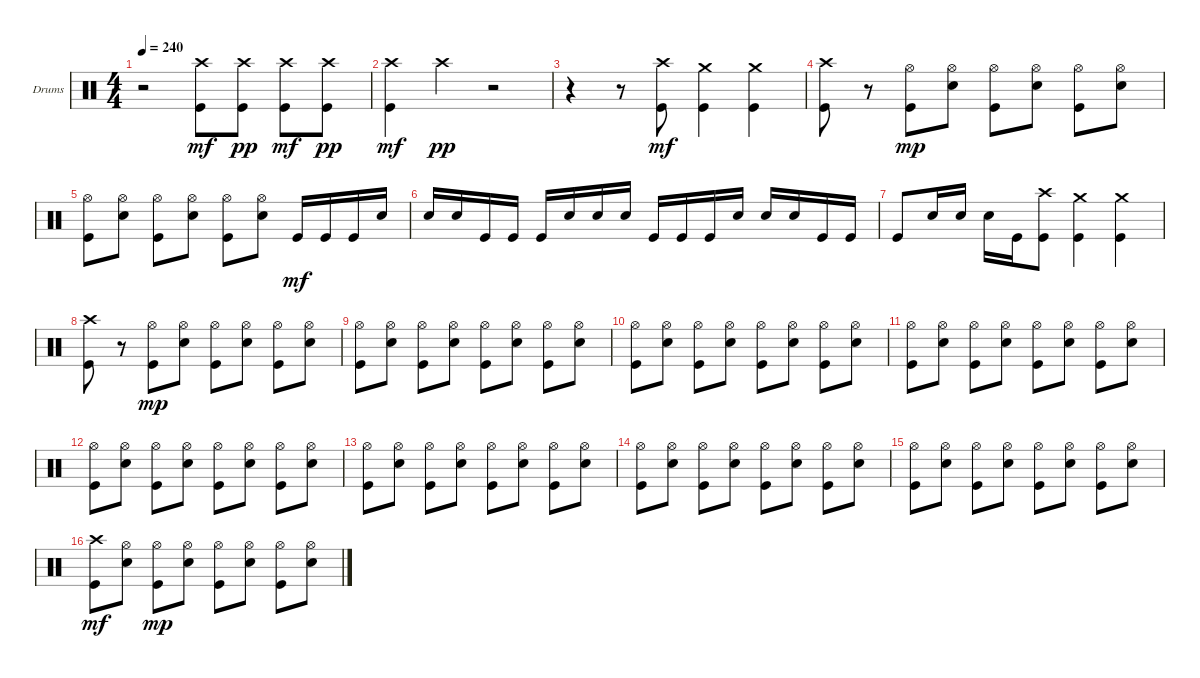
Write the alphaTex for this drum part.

\bracketExtendMode groupsimilarinstruments
\firstSystemTrackNameOrientation horizontal
\otherSystemsTrackNameOrientation horizontal
\track ("Drumkit" "Drums") {instrument percussion}
\staff {score}
\articulation defaults
\ts (4 4)
\tempo 240
\clef neutral
\ks c
r.2{dy mf} ("Crash high (hit)" "Kick (hit)").8 ("Crash high (hit)" "Kick (hit)").8{dy pp} ("Crash high (hit)" "Kick (hit)").8{dy mf} ("Crash high (hit)" "Kick (hit)").8{dy pp} |
("Crash high (hit)" "Kick (hit)").4{dy mf} "Crash high (hit)".4{dy pp} r.2 |
r.4 r.8 ("Crash high (hit)" "Kick (hit)").8{dy mf} ("Crash medium (hit)" "Kick (hit)").4 ("Crash medium (hit)" "Kick (hit)").4 |
("Crash high (hit)" "Kick (hit)").8 r.8 ("Hi-Hat (open)" "Kick (hit)").8{dy mp} ("Hi-Hat (open)" "Snare (hit) 2").8 ("Hi-Hat (open)" "Kick (hit)").8 ("Hi-Hat (open)" "Snare (hit) 2").8 ("Hi-Hat (open)" "Kick (hit)").8 ("Hi-Hat (open)" "Snare (hit) 2").8 |
("Hi-Hat (open)" "Kick (hit)").8 ("Hi-Hat (open)" "Snare (hit) 2").8 ("Hi-Hat (open)" "Kick (hit)").8 ("Hi-Hat (open)" "Snare (hit) 2").8 ("Hi-Hat (open)" "Kick (hit)").8 ("Hi-Hat (open)" "Snare (hit) 2").8 "Kick (hit)".16{dy mf} "Kick (hit)".16 "Kick (hit)".16 "Snare (hit) 2".16 |
"Snare (hit) 2".16 "Snare (hit) 2".16 "Kick (hit)".16 "Kick (hit)".16 "Kick (hit)".16 "Snare (hit) 2".16 "Snare (hit) 2".16 "Snare (hit) 2".16 "Kick (hit)".16 "Kick (hit)".16 "Kick (hit)".16 "Snare (hit) 2".16 "Snare (hit) 2".16 "Snare (hit) 2".16 "Kick (hit)".16 "Kick (hit)".16 |
"Kick (hit)".8 "Snare (hit) 2".16 "Snare (hit) 2".16 "Snare (hit) 2".16 "Kick (hit)".16 ("Crash high (hit)" "Kick (hit)").8 ("Crash medium (hit)" "Kick (hit)").4 ("Crash medium (hit)" "Kick (hit)").4 |
("Crash high (hit)" "Kick (hit)").8 r.8 ("Hi-Hat (open)" "Kick (hit)").8{dy mp} ("Hi-Hat (open)" "Snare (hit) 2").8 ("Hi-Hat (open)" "Kick (hit)").8 ("Hi-Hat (open)" "Snare (hit) 2").8 ("Hi-Hat (open)" "Kick (hit)").8 ("Hi-Hat (open)" "Snare (hit) 2").8 |
("Hi-Hat (open)" "Kick (hit)").8 ("Hi-Hat (open)" "Snare (hit) 2").8 ("Hi-Hat (open)" "Kick (hit)").8 ("Hi-Hat (open)" "Snare (hit) 2").8 ("Hi-Hat (open)" "Kick (hit)").8 ("Hi-Hat (open)" "Snare (hit) 2").8 ("Hi-Hat (open)" "Kick (hit)").8 ("Hi-Hat (open)" "Snare (hit) 2").8 |
("Hi-Hat (open)" "Kick (hit)").8 ("Hi-Hat (open)" "Snare (hit) 2").8 ("Hi-Hat (open)" "Kick (hit)").8 ("Hi-Hat (open)" "Snare (hit) 2").8 ("Hi-Hat (open)" "Kick (hit)").8 ("Hi-Hat (open)" "Snare (hit) 2").8 ("Hi-Hat (open)" "Kick (hit)").8 ("Hi-Hat (open)" "Snare (hit) 2").8 |
("Hi-Hat (open)" "Kick (hit)").8 ("Hi-Hat (open)" "Snare (hit) 2").8 ("Hi-Hat (open)" "Kick (hit)").8 ("Hi-Hat (open)" "Snare (hit) 2").8 ("Hi-Hat (open)" "Kick (hit)").8 ("Hi-Hat (open)" "Snare (hit) 2").8 ("Hi-Hat (open)" "Kick (hit)").8 ("Hi-Hat (open)" "Snare (hit) 2").8 |
("Hi-Hat (open)" "Kick (hit)").8 ("Hi-Hat (open)" "Snare (hit) 2").8 ("Hi-Hat (open)" "Kick (hit)").8 ("Hi-Hat (open)" "Snare (hit) 2").8 ("Hi-Hat (open)" "Kick (hit)").8 ("Hi-Hat (open)" "Snare (hit) 2").8 ("Hi-Hat (open)" "Kick (hit)").8 ("Hi-Hat (open)" "Snare (hit) 2").8 |
("Hi-Hat (open)" "Kick (hit)").8 ("Hi-Hat (open)" "Snare (hit) 2").8 ("Hi-Hat (open)" "Kick (hit)").8 ("Hi-Hat (open)" "Snare (hit) 2").8 ("Hi-Hat (open)" "Kick (hit)").8 ("Hi-Hat (open)" "Snare (hit) 2").8 ("Hi-Hat (open)" "Kick (hit)").8 ("Hi-Hat (open)" "Snare (hit) 2").8 |
("Hi-Hat (open)" "Kick (hit)").8 ("Hi-Hat (open)" "Snare (hit) 2").8 ("Hi-Hat (open)" "Kick (hit)").8 ("Hi-Hat (open)" "Snare (hit) 2").8 ("Hi-Hat (open)" "Kick (hit)").8 ("Hi-Hat (open)" "Snare (hit) 2").8 ("Hi-Hat (open)" "Kick (hit)").8 ("Hi-Hat (open)" "Snare (hit) 2").8 |
("Hi-Hat (open)" "Kick (hit)").8 ("Hi-Hat (open)" "Snare (hit) 2").8 ("Hi-Hat (open)" "Kick (hit)").8 ("Hi-Hat (open)" "Snare (hit) 2").8 ("Hi-Hat (open)" "Kick (hit)").8 ("Hi-Hat (open)" "Snare (hit) 2").8 ("Hi-Hat (open)" "Kick (hit)").8 ("Hi-Hat (open)" "Snare (hit) 2").8 |
("Crash high (hit)" "Kick (hit)").8{dy mf} ("Hi-Hat (open)" "Snare (hit) 2").8 ("Hi-Hat (open)" "Kick (hit)").8{dy mp} ("Hi-Hat (open)" "Snare (hit) 2").8 ("Hi-Hat (open)" "Kick (hit)").8 ("Hi-Hat (open)" "Snare (hit) 2").8 ("Hi-Hat (open)" "Kick (hit)").8 ("Hi-Hat (open)" "Snare (hit) 2").8
